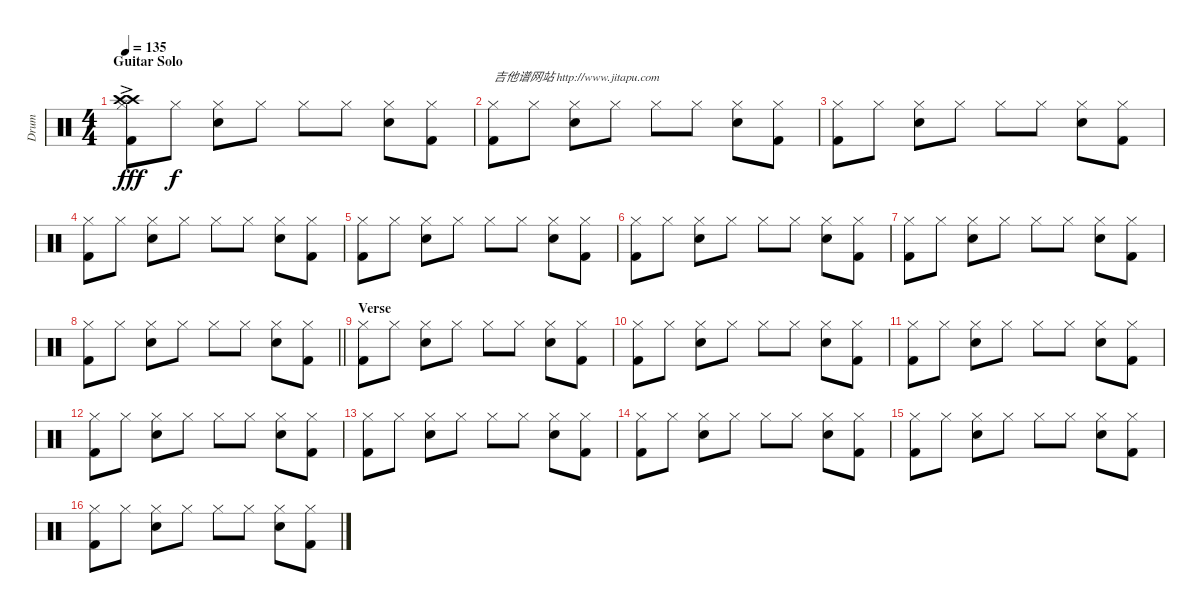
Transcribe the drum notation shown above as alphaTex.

\track ("Drum" "Drum") {instrument percussion}
\staff {score}
\articulation defaults
\ts (4 4)
\section ("" "Guitar Solo")
\tempo 135
\clef neutral
\ks c
("Crash high (hit)"{ac} "Crash high (hit)"{ac} "Hi-Hat (closed)" "Kick (hit) 2").8{dy fff} "Hi-Hat (closed)".8{dy f} ("Snare (hit) 2" "Hi-Hat (closed)").8 "Hi-Hat (closed)".8 "Hi-Hat (closed)".8 "Hi-Hat (closed)".8 ("Snare (hit) 2" "Hi-Hat (closed)").8 ("Hi-Hat (closed)" "Kick (hit) 2").8 |
("Hi-Hat (closed)" "Kick (hit) 2").8{txt "吉他谱网站 http://www.jitapu.com"} "Hi-Hat (closed)".8 ("Snare (hit) 2" "Hi-Hat (closed)").8 "Hi-Hat (closed)".8 "Hi-Hat (closed)".8 "Hi-Hat (closed)".8 ("Snare (hit) 2" "Hi-Hat (closed)").8 ("Hi-Hat (closed)" "Kick (hit) 2").8 |
("Hi-Hat (closed)" "Kick (hit) 2").8 "Hi-Hat (closed)".8 ("Snare (hit) 2" "Hi-Hat (closed)").8 "Hi-Hat (closed)".8 "Hi-Hat (closed)".8 "Hi-Hat (closed)".8 ("Snare (hit) 2" "Hi-Hat (closed)").8 ("Hi-Hat (closed)" "Kick (hit) 2").8 |
("Hi-Hat (closed)" "Kick (hit) 2").8 "Hi-Hat (closed)".8 ("Snare (hit) 2" "Hi-Hat (closed)").8 "Hi-Hat (closed)".8 "Hi-Hat (closed)".8 "Hi-Hat (closed)".8 ("Snare (hit) 2" "Hi-Hat (closed)").8 ("Hi-Hat (closed)" "Kick (hit) 2").8 |
("Hi-Hat (closed)" "Kick (hit) 2").8 "Hi-Hat (closed)".8 ("Snare (hit) 2" "Hi-Hat (closed)").8 "Hi-Hat (closed)".8 "Hi-Hat (closed)".8 "Hi-Hat (closed)".8 ("Snare (hit) 2" "Hi-Hat (closed)").8 ("Hi-Hat (closed)" "Kick (hit) 2").8 |
("Hi-Hat (closed)" "Kick (hit) 2").8 "Hi-Hat (closed)".8 ("Snare (hit) 2" "Hi-Hat (closed)").8 "Hi-Hat (closed)".8 "Hi-Hat (closed)".8 "Hi-Hat (closed)".8 ("Snare (hit) 2" "Hi-Hat (closed)").8 ("Hi-Hat (closed)" "Kick (hit) 2").8 |
("Hi-Hat (closed)" "Kick (hit) 2").8 "Hi-Hat (closed)".8 ("Snare (hit) 2" "Hi-Hat (closed)").8 "Hi-Hat (closed)".8 "Hi-Hat (closed)".8 "Hi-Hat (closed)".8 ("Snare (hit) 2" "Hi-Hat (closed)").8 ("Hi-Hat (closed)" "Kick (hit) 2").8 |
\barLineRight lightlight
("Hi-Hat (closed)" "Kick (hit) 2").8 "Hi-Hat (closed)".8 ("Snare (hit) 2" "Hi-Hat (closed)").8 "Hi-Hat (closed)".8 "Hi-Hat (closed)".8 "Hi-Hat (closed)".8 ("Snare (hit) 2" "Hi-Hat (closed)").8 ("Hi-Hat (closed)" "Kick (hit) 2").8 |
\section ("" "Verse")
("Hi-Hat (closed)" "Kick (hit) 2").8 "Hi-Hat (closed)".8 ("Snare (hit) 2" "Hi-Hat (closed)").8 "Hi-Hat (closed)".8 "Hi-Hat (closed)".8 "Hi-Hat (closed)".8 ("Snare (hit) 2" "Hi-Hat (closed)").8 ("Hi-Hat (closed)" "Kick (hit) 2").8 |
("Hi-Hat (closed)" "Kick (hit) 2").8 "Hi-Hat (closed)".8 ("Snare (hit) 2" "Hi-Hat (closed)").8 "Hi-Hat (closed)".8 "Hi-Hat (closed)".8 "Hi-Hat (closed)".8 ("Snare (hit) 2" "Hi-Hat (closed)").8 ("Hi-Hat (closed)" "Kick (hit) 2").8 |
("Hi-Hat (closed)" "Kick (hit) 2").8 "Hi-Hat (closed)".8 ("Snare (hit) 2" "Hi-Hat (closed)").8 "Hi-Hat (closed)".8 "Hi-Hat (closed)".8 "Hi-Hat (closed)".8 ("Snare (hit) 2" "Hi-Hat (closed)").8 ("Hi-Hat (closed)" "Kick (hit) 2").8 |
("Hi-Hat (closed)" "Kick (hit) 2").8 "Hi-Hat (closed)".8 ("Snare (hit) 2" "Hi-Hat (closed)").8 "Hi-Hat (closed)".8 "Hi-Hat (closed)".8 "Hi-Hat (closed)".8 ("Snare (hit) 2" "Hi-Hat (closed)").8 ("Hi-Hat (closed)" "Kick (hit) 2").8 |
("Hi-Hat (closed)" "Kick (hit) 2").8 "Hi-Hat (closed)".8 ("Snare (hit) 2" "Hi-Hat (closed)").8 "Hi-Hat (closed)".8 "Hi-Hat (closed)".8 "Hi-Hat (closed)".8 ("Snare (hit) 2" "Hi-Hat (closed)").8 ("Hi-Hat (closed)" "Kick (hit) 2").8 |
("Hi-Hat (closed)" "Kick (hit) 2").8 "Hi-Hat (closed)".8 ("Snare (hit) 2" "Hi-Hat (closed)").8 "Hi-Hat (closed)".8 "Hi-Hat (closed)".8 "Hi-Hat (closed)".8 ("Snare (hit) 2" "Hi-Hat (closed)").8 ("Hi-Hat (closed)" "Kick (hit) 2").8 |
("Hi-Hat (closed)" "Kick (hit) 2").8 "Hi-Hat (closed)".8 ("Snare (hit) 2" "Hi-Hat (closed)").8 "Hi-Hat (closed)".8 "Hi-Hat (closed)".8 "Hi-Hat (closed)".8 ("Snare (hit) 2" "Hi-Hat (closed)").8 ("Hi-Hat (closed)" "Kick (hit) 2").8 |
("Hi-Hat (closed)" "Kick (hit) 2").8 "Hi-Hat (closed)".8 ("Snare (hit) 2" "Hi-Hat (closed)").8 "Hi-Hat (closed)".8 "Hi-Hat (closed)".8 "Hi-Hat (closed)".8 ("Snare (hit) 2" "Hi-Hat (closed)").8 ("Hi-Hat (closed)" "Kick (hit) 2").8
